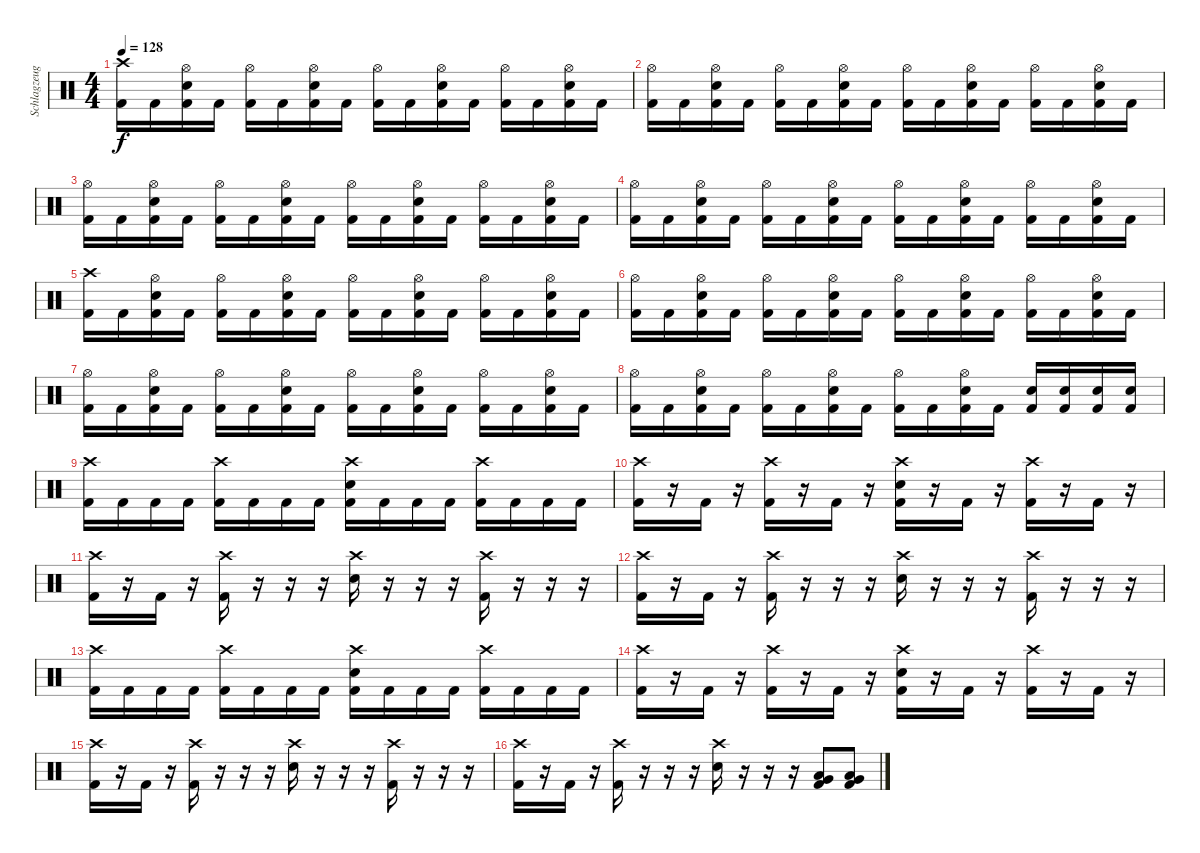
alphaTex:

\track ("Schlagzeug" "Schlagzeug") {instrument percussion}
\staff {score}
\articulation defaults
\ts (4 4)
\tempo 128
\clef neutral
\ks c
("Crash high (hit)" "Kick (hit) 2").16{dy f} "Kick (hit) 2".16 ("Hi-Hat (open)" "Snare (hit) 2" "Kick (hit) 2").16 "Kick (hit) 2".16 ("Hi-Hat (open)" "Kick (hit) 2").16 "Kick (hit) 2".16 ("Hi-Hat (open)" "Snare (hit) 2" "Kick (hit) 2").16 "Kick (hit) 2".16 ("Hi-Hat (open)" "Kick (hit) 2").16 "Kick (hit) 2".16 ("Hi-Hat (open)" "Snare (hit) 2" "Kick (hit) 2").16 "Kick (hit) 2".16 ("Hi-Hat (open)" "Kick (hit) 2").16 "Kick (hit) 2".16 ("Hi-Hat (open)" "Snare (hit) 2" "Kick (hit) 2").16 "Kick (hit) 2".16 |
("Hi-Hat (open)" "Kick (hit) 2").16 "Kick (hit) 2".16 ("Hi-Hat (open)" "Snare (hit) 2" "Kick (hit) 2").16 "Kick (hit) 2".16 ("Hi-Hat (open)" "Kick (hit) 2").16 "Kick (hit) 2".16 ("Hi-Hat (open)" "Snare (hit) 2" "Kick (hit) 2").16 "Kick (hit) 2".16 ("Hi-Hat (open)" "Kick (hit) 2").16 "Kick (hit) 2".16 ("Hi-Hat (open)" "Snare (hit) 2" "Kick (hit) 2").16 "Kick (hit) 2".16 ("Hi-Hat (open)" "Kick (hit) 2").16 "Kick (hit) 2".16 ("Hi-Hat (open)" "Snare (hit) 2" "Kick (hit) 2").16 "Kick (hit) 2".16 |
("Hi-Hat (open)" "Kick (hit) 2").16 "Kick (hit) 2".16 ("Hi-Hat (open)" "Snare (hit) 2" "Kick (hit) 2").16 "Kick (hit) 2".16 ("Hi-Hat (open)" "Kick (hit) 2").16 "Kick (hit) 2".16 ("Hi-Hat (open)" "Snare (hit) 2" "Kick (hit) 2").16 "Kick (hit) 2".16 ("Hi-Hat (open)" "Kick (hit) 2").16 "Kick (hit) 2".16 ("Hi-Hat (open)" "Snare (hit) 2" "Kick (hit) 2").16 "Kick (hit) 2".16 ("Hi-Hat (open)" "Kick (hit) 2").16 "Kick (hit) 2".16 ("Hi-Hat (open)" "Snare (hit) 2" "Kick (hit) 2").16 "Kick (hit) 2".16 |
("Hi-Hat (open)" "Kick (hit) 2").16 "Kick (hit) 2".16 ("Hi-Hat (open)" "Snare (hit) 2" "Kick (hit) 2").16 "Kick (hit) 2".16 ("Hi-Hat (open)" "Kick (hit) 2").16 "Kick (hit) 2".16 ("Hi-Hat (open)" "Snare (hit) 2" "Kick (hit) 2").16 "Kick (hit) 2".16 ("Hi-Hat (open)" "Kick (hit) 2").16 "Kick (hit) 2".16 ("Hi-Hat (open)" "Snare (hit) 2" "Kick (hit) 2").16 "Kick (hit) 2".16 ("Hi-Hat (open)" "Kick (hit) 2").16 "Kick (hit) 2".16 ("Hi-Hat (open)" "Snare (hit) 2" "Kick (hit) 2").16 "Kick (hit) 2".16 |
("Crash high (hit)" "Kick (hit) 2").16 "Kick (hit) 2".16 ("Hi-Hat (open)" "Snare (hit) 2" "Kick (hit) 2").16 "Kick (hit) 2".16 ("Hi-Hat (open)" "Kick (hit) 2").16 "Kick (hit) 2".16 ("Hi-Hat (open)" "Snare (hit) 2" "Kick (hit) 2").16 "Kick (hit) 2".16 ("Hi-Hat (open)" "Kick (hit) 2").16 "Kick (hit) 2".16 ("Hi-Hat (open)" "Snare (hit) 2" "Kick (hit) 2").16 "Kick (hit) 2".16 ("Hi-Hat (open)" "Kick (hit) 2").16 "Kick (hit) 2".16 ("Hi-Hat (open)" "Snare (hit) 2" "Kick (hit) 2").16 "Kick (hit) 2".16 |
("Hi-Hat (open)" "Kick (hit) 2").16 "Kick (hit) 2".16 ("Hi-Hat (open)" "Snare (hit) 2" "Kick (hit) 2").16 "Kick (hit) 2".16 ("Hi-Hat (open)" "Kick (hit) 2").16 "Kick (hit) 2".16 ("Hi-Hat (open)" "Snare (hit) 2" "Kick (hit) 2").16 "Kick (hit) 2".16 ("Hi-Hat (open)" "Kick (hit) 2").16 "Kick (hit) 2".16 ("Hi-Hat (open)" "Snare (hit) 2" "Kick (hit) 2").16 "Kick (hit) 2".16 ("Hi-Hat (open)" "Kick (hit) 2").16 "Kick (hit) 2".16 ("Hi-Hat (open)" "Snare (hit) 2" "Kick (hit) 2").16 "Kick (hit) 2".16 |
("Hi-Hat (open)" "Kick (hit) 2").16 "Kick (hit) 2".16 ("Hi-Hat (open)" "Snare (hit) 2" "Kick (hit) 2").16 "Kick (hit) 2".16 ("Hi-Hat (open)" "Kick (hit) 2").16 "Kick (hit) 2".16 ("Hi-Hat (open)" "Snare (hit) 2" "Kick (hit) 2").16 "Kick (hit) 2".16 ("Hi-Hat (open)" "Kick (hit) 2").16 "Kick (hit) 2".16 ("Hi-Hat (open)" "Snare (hit) 2" "Kick (hit) 2").16 "Kick (hit) 2".16 ("Hi-Hat (open)" "Kick (hit) 2").16 "Kick (hit) 2".16 ("Hi-Hat (open)" "Snare (hit) 2" "Kick (hit) 2").16 "Kick (hit) 2".16 |
("Hi-Hat (open)" "Kick (hit) 2").16 "Kick (hit) 2".16 ("Hi-Hat (open)" "Snare (hit) 2" "Kick (hit) 2").16 "Kick (hit) 2".16 ("Hi-Hat (open)" "Kick (hit) 2").16 "Kick (hit) 2".16 ("Hi-Hat (open)" "Snare (hit) 2" "Kick (hit) 2").16 "Kick (hit) 2".16 ("Hi-Hat (open)" "Kick (hit) 2").16 "Kick (hit) 2".16 ("Hi-Hat (open)" "Snare (hit) 2" "Kick (hit) 2").16 "Kick (hit) 2".16 ("Snare (hit) 2" "Kick (hit) 2").16 ("Snare (hit) 2" "Kick (hit) 2").16 ("Snare (hit) 2" "Kick (hit) 2").16 ("Snare (hit) 2" "Kick (hit) 2").16 |
("Crash high (hit)" "Kick (hit) 2").16 "Kick (hit) 2".16 "Kick (hit) 2".16 "Kick (hit) 2".16 ("Crash high (hit)" "Kick (hit) 2").16 "Kick (hit) 2".16 "Kick (hit) 2".16 "Kick (hit) 2".16 ("Crash high (hit)" "Snare (hit) 2" "Kick (hit) 2").16 "Kick (hit) 2".16 "Kick (hit) 2".16 "Kick (hit) 2".16 ("Crash high (hit)" "Kick (hit) 2").16 "Kick (hit) 2".16 "Kick (hit) 2".16 "Kick (hit) 2".16 |
("Crash high (hit)" "Kick (hit) 2").16 r.16 "Kick (hit) 2".16 r.16 ("Crash high (hit)" "Kick (hit) 2").16 r.16 "Kick (hit) 2".16 r.16 ("Crash high (hit)" "Snare (hit) 2" "Kick (hit) 2").16 r.16 "Kick (hit) 2".16 r.16 ("Crash high (hit)" "Kick (hit) 2").16 r.16 "Kick (hit) 2".16 r.16 |
("Crash high (hit)" "Kick (hit) 2").16 r.16 "Kick (hit) 2".16 r.16 ("Crash high (hit)" "Kick (hit) 2").16 r.16 r.16 r.16 ("Crash high (hit)" "Snare (hit) 2").16 r.16 r.16 r.16 ("Crash high (hit)" "Kick (hit) 2").16 r.16 r.16 r.16 |
("Crash high (hit)" "Kick (hit) 2").16 r.16 "Kick (hit) 2".16 r.16 ("Crash high (hit)" "Kick (hit) 2").16 r.16 r.16 r.16 ("Crash high (hit)" "Snare (hit) 2").16 r.16 r.16 r.16 ("Crash high (hit)" "Kick (hit) 2").16 r.16 r.16 r.16 |
("Crash high (hit)" "Kick (hit) 2").16 "Kick (hit) 2".16 "Kick (hit) 2".16 "Kick (hit) 2".16 ("Crash high (hit)" "Kick (hit) 2").16 "Kick (hit) 2".16 "Kick (hit) 2".16 "Kick (hit) 2".16 ("Crash high (hit)" "Snare (hit) 2" "Kick (hit) 2").16 "Kick (hit) 2".16 "Kick (hit) 2".16 "Kick (hit) 2".16 ("Crash high (hit)" "Kick (hit) 2").16 "Kick (hit) 2".16 "Kick (hit) 2".16 "Kick (hit) 2".16 |
("Crash high (hit)" "Kick (hit) 2").16 r.16 "Kick (hit) 2".16 r.16 ("Crash high (hit)" "Kick (hit) 2").16 r.16 "Kick (hit) 2".16 r.16 ("Crash high (hit)" "Snare (hit) 2" "Kick (hit) 2").16 r.16 "Kick (hit) 2".16 r.16 ("Crash high (hit)" "Kick (hit) 2").16 r.16 "Kick (hit) 2".16 r.16 |
("Crash high (hit)" "Kick (hit) 2").16 r.16 "Kick (hit) 2".16 r.16 ("Crash high (hit)" "Kick (hit) 2").16 r.16 r.16 r.16 ("Crash high (hit)" "Snare (hit) 2").16 r.16 r.16 r.16 ("Crash high (hit)" "Kick (hit) 2").16 r.16 r.16 r.16 |
("Crash high (hit)" "Kick (hit) 2").16 r.16 "Kick (hit) 2".16 r.16 ("Crash high (hit)" "Kick (hit) 2").16 r.16 r.16 r.16 ("Crash high (hit)" "Snare (hit) 2").16 r.16 r.16 r.16 ("Very Low Tom (hit)" "Low Floor Tom (hit)" "Kick (hit) 2").8 ("Very Low Tom (hit)" "Low Floor Tom (hit)" "Kick (hit) 2").8
